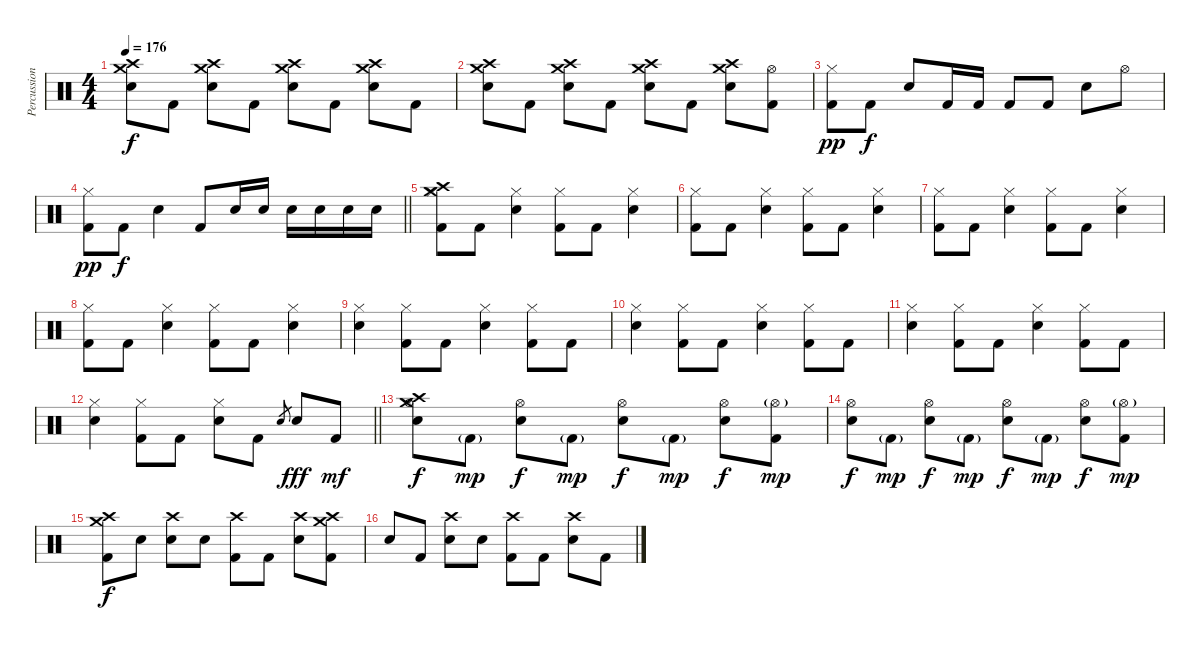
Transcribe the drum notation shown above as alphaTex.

\track ("Percussion" "Percussion") {instrument percussion}
\staff {score}
\articulation defaults
\ts (4 4)
\tempo 176
\clef neutral
\ks c
("Crash medium (hit)" "Crash high (hit)" "Electric Snare (hit)").8{dy f} "Kick (hit) 2".8 ("Crash medium (hit)" "Crash high (hit)" "Electric Snare (hit)").8 "Kick (hit) 2".8 ("Crash medium (hit)" "Crash high (hit)" "Electric Snare (hit)").8 "Kick (hit) 2".8 ("Crash high (hit)" "Crash medium (hit)" "Electric Snare (hit)").8 "Kick (hit) 2".8 |
("Crash medium (hit)" "Crash high (hit)" "Electric Snare (hit)").8 "Kick (hit) 2".8 ("Crash medium (hit)" "Crash high (hit)" "Electric Snare (hit)").8 "Kick (hit) 2".8 ("Crash medium (hit)" "Crash high (hit)" "Electric Snare (hit)").8 "Kick (hit) 2".8 ("Crash high (hit)" "Crash medium (hit)" "Electric Snare (hit)").8 ("Hi-Hat (open)" "Kick (hit) 2").8 |
("Hi-Hat (closed)" "Kick (hit) 2").8{dy pp} "Kick (hit) 2".8{dy f} "Electric Snare (hit)".8 "Kick (hit) 2".16 "Kick (hit) 2".16 "Kick (hit) 2".8 "Kick (hit) 2".8 "Electric Snare (hit)".8 "Hi-Hat (open)".8 |
\barLineRight lightlight
("Hi-Hat (closed)" "Kick (hit) 2").8{dy pp} "Kick (hit) 2".8{dy f} "Electric Snare (hit)".4 "Kick (hit) 2".8 "Electric Snare (hit)".16 "Electric Snare (hit)".16 "Electric Snare (hit)".16 "Electric Snare (hit)".16 "Electric Snare (hit)".16 "Electric Snare (hit)".16 |
("Crash high (hit)" "Crash medium (hit)" "Hi-Hat (closed)" "Kick (hit) 2").8 "Kick (hit) 2".8 ("Hi-Hat (closed)" "Electric Snare (hit)").4 ("Hi-Hat (closed)" "Kick (hit) 2").8 "Kick (hit) 2".8 ("Hi-Hat (closed)" "Electric Snare (hit)").4 |
("Hi-Hat (closed)" "Kick (hit) 2").8 "Kick (hit) 2".8 ("Hi-Hat (closed)" "Electric Snare (hit)").4 ("Hi-Hat (closed)" "Kick (hit) 2").8 "Kick (hit) 2".8 ("Hi-Hat (closed)" "Electric Snare (hit)").4 |
("Hi-Hat (closed)" "Kick (hit) 2").8 "Kick (hit) 2".8 ("Hi-Hat (closed)" "Electric Snare (hit)").4 ("Hi-Hat (closed)" "Kick (hit) 2").8 "Kick (hit) 2".8 ("Hi-Hat (closed)" "Electric Snare (hit)").4 |
("Hi-Hat (closed)" "Kick (hit) 2").8 "Kick (hit) 2".8 ("Hi-Hat (closed)" "Electric Snare (hit)").4 ("Hi-Hat (closed)" "Kick (hit) 2").8 "Kick (hit) 2".8 ("Hi-Hat (closed)" "Electric Snare (hit)").4 |
("Hi-Hat (closed)" "Electric Snare (hit)").4 ("Hi-Hat (closed)" "Kick (hit) 2").8 "Kick (hit) 2".8 ("Hi-Hat (closed)" "Electric Snare (hit)").4 ("Hi-Hat (closed)" "Kick (hit) 2").8 "Kick (hit) 2".8 |
("Hi-Hat (closed)" "Electric Snare (hit)").4 ("Hi-Hat (closed)" "Kick (hit) 2").8 "Kick (hit) 2".8 ("Hi-Hat (closed)" "Electric Snare (hit)").4 ("Hi-Hat (closed)" "Kick (hit) 2").8 "Kick (hit) 2".8 |
("Hi-Hat (closed)" "Electric Snare (hit)").4 ("Hi-Hat (closed)" "Kick (hit) 2").8 "Kick (hit) 2".8 ("Hi-Hat (closed)" "Electric Snare (hit)").4 ("Hi-Hat (closed)" "Kick (hit) 2").8 "Kick (hit) 2".8 |
\barLineRight lightlight
("Hi-Hat (closed)" "Electric Snare (hit)").4 ("Hi-Hat (closed)" "Kick (hit) 2").8 "Kick (hit) 2".8 ("Hi-Hat (closed)" "Electric Snare (hit)").8 "Kick (hit) 2".8 "Electric Snare (hit)".8{gr} "Electric Snare (hit)".8{dy fff} "Kick (hit) 2".8{dy mf} |
("Crash medium (hit)" "Crash high (hit)" "Hi-Hat (open)" "Electric Snare (hit)").8{dy f} "Kick (hit) 2"{g}.8{dy mp} ("Hi-Hat (open)" "Electric Snare (hit)").8{dy f} "Kick (hit) 2"{g}.8{dy mp} ("Hi-Hat (open)" "Electric Snare (hit)").8{dy f} "Kick (hit) 2"{g}.8{dy mp} ("Hi-Hat (open)" "Electric Snare (hit)").8{dy f} ("Hi-Hat (open)"{g} "Kick (hit) 2").8{dy mp} |
("Hi-Hat (open)" "Electric Snare (hit)").8{dy f} "Kick (hit) 2"{g}.8{dy mp} ("Hi-Hat (open)" "Electric Snare (hit)").8{dy f} "Kick (hit) 2"{g}.8{dy mp} ("Hi-Hat (open)" "Electric Snare (hit)").8{dy f} "Kick (hit) 2"{g}.8{dy mp} ("Hi-Hat (open)" "Electric Snare (hit)").8{dy f} ("Hi-Hat (open)"{g} "Kick (hit) 2").8{dy mp} |
("Crash medium (hit)" "Crash high (hit)" "Kick (hit) 2").8{dy f} "Snare (hit)"{x}.8 ("Crash high (hit)" "Electric Snare (hit)").8 "Snare (hit)"{x}.8 ("Crash high (hit)" "Kick (hit) 2").8 "Kick (hit) 2".8 ("Crash high (hit)" "Electric Snare (hit)").8 ("Crash high (hit)" "Crash medium (hit)" "Kick (hit) 2").8 |
"Snare (hit)"{x}.8 "Kick (hit) 2".8 ("Crash high (hit)" "Electric Snare (hit)").8 "Snare (hit)"{x}.8 ("Crash high (hit)" "Kick (hit) 2").8 "Kick (hit) 2".8 ("Crash high (hit)" "Electric Snare (hit)").8 "Kick (hit) 2".8
